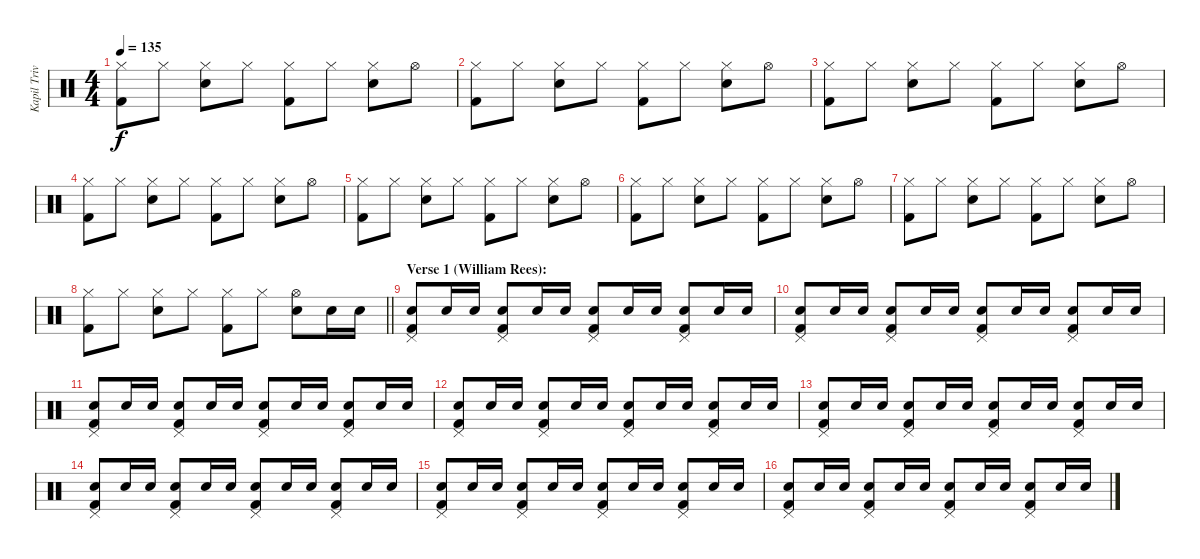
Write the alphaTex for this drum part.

\track ("Kapil Trivedi (Percussion)" "Kapil Triv") {instrument percussion}
\staff {score}
\articulation defaults
\ts (4 4)
\tempo 135
\clef neutral
\ks c
("Hi-Hat (closed)" "Kick (hit) 2").8{dy f} "Hi-Hat (closed)".8 ("Hi-Hat (closed)" "Snare (hit) 2").8 "Hi-Hat (closed)".8 ("Hi-Hat (closed)" "Kick (hit) 2").8 "Hi-Hat (closed)".8 ("Hi-Hat (closed)" "Snare (hit) 2").8 "Hi-Hat (open)".8 |
("Hi-Hat (closed)" "Kick (hit) 2").8 "Hi-Hat (closed)".8 ("Hi-Hat (closed)" "Snare (hit) 2").8 "Hi-Hat (closed)".8 ("Hi-Hat (closed)" "Kick (hit) 2").8 "Hi-Hat (closed)".8 ("Hi-Hat (closed)" "Snare (hit) 2").8 "Hi-Hat (open)".8 |
("Hi-Hat (closed)" "Kick (hit) 2").8 "Hi-Hat (closed)".8 ("Hi-Hat (closed)" "Snare (hit) 2").8 "Hi-Hat (closed)".8 ("Hi-Hat (closed)" "Kick (hit) 2").8 "Hi-Hat (closed)".8 ("Hi-Hat (closed)" "Snare (hit) 2").8 "Hi-Hat (open)".8 |
("Hi-Hat (closed)" "Kick (hit) 2").8 "Hi-Hat (closed)".8 ("Hi-Hat (closed)" "Snare (hit) 2").8 "Hi-Hat (closed)".8 ("Hi-Hat (closed)" "Kick (hit) 2").8 "Hi-Hat (closed)".8 ("Hi-Hat (closed)" "Snare (hit) 2").8 "Hi-Hat (open)".8 |
("Hi-Hat (closed)" "Kick (hit) 2").8 "Hi-Hat (closed)".8 ("Hi-Hat (closed)" "Snare (hit) 2").8 "Hi-Hat (closed)".8 ("Hi-Hat (closed)" "Kick (hit) 2").8 "Hi-Hat (closed)".8 ("Hi-Hat (closed)" "Snare (hit) 2").8 "Hi-Hat (open)".8 |
("Hi-Hat (closed)" "Kick (hit) 2").8 "Hi-Hat (closed)".8 ("Hi-Hat (closed)" "Snare (hit) 2").8 "Hi-Hat (closed)".8 ("Hi-Hat (closed)" "Kick (hit) 2").8 "Hi-Hat (closed)".8 ("Hi-Hat (closed)" "Snare (hit) 2").8 "Hi-Hat (open)".8 |
("Hi-Hat (closed)" "Kick (hit) 2").8 "Hi-Hat (closed)".8 ("Hi-Hat (closed)" "Snare (hit) 2").8 "Hi-Hat (closed)".8 ("Hi-Hat (closed)" "Kick (hit) 2").8 "Hi-Hat (closed)".8 ("Hi-Hat (closed)" "Snare (hit) 2").8 "Hi-Hat (open)".8 |
\barLineRight lightlight
("Hi-Hat (closed)" "Kick (hit) 2").8 "Hi-Hat (closed)".8 ("Hi-Hat (closed)" "Snare (hit) 2").8 "Hi-Hat (closed)".8 ("Hi-Hat (closed)" "Kick (hit) 2").8 "Hi-Hat (closed)".8 ("Hi-Hat (open)" "Snare (hit) 2").8 "Snare (hit) 2".16{volume 10} "Snare (hit) 2".16 |
\section ("" "Verse 1 (William Rees):")
("Pedal Hi-Hat (hit)" "Snare (hit) 2" "Kick (hit) 2").8 "Snare (hit) 2".16 "Snare (hit) 2".16 ("Pedal Hi-Hat (hit)" "Snare (hit) 2" "Kick (hit) 2").8 "Snare (hit) 2".16 "Snare (hit) 2".16 ("Pedal Hi-Hat (hit)" "Snare (hit) 2" "Kick (hit) 2").8 "Snare (hit) 2".16 "Snare (hit) 2".16 ("Pedal Hi-Hat (hit)" "Snare (hit) 2" "Kick (hit) 2").8 "Snare (hit) 2".16 "Snare (hit) 2".16 |
("Pedal Hi-Hat (hit)" "Snare (hit) 2" "Kick (hit) 2").8 "Snare (hit) 2".16 "Snare (hit) 2".16 ("Pedal Hi-Hat (hit)" "Snare (hit) 2" "Kick (hit) 2").8 "Snare (hit) 2".16 "Snare (hit) 2".16 ("Pedal Hi-Hat (hit)" "Snare (hit) 2" "Kick (hit) 2").8 "Snare (hit) 2".16 "Snare (hit) 2".16 ("Pedal Hi-Hat (hit)" "Snare (hit) 2" "Kick (hit) 2").8 "Snare (hit) 2".16 "Snare (hit) 2".16 |
("Pedal Hi-Hat (hit)" "Snare (hit) 2" "Kick (hit) 2").8 "Snare (hit) 2".16 "Snare (hit) 2".16 ("Pedal Hi-Hat (hit)" "Snare (hit) 2" "Kick (hit) 2").8 "Snare (hit) 2".16 "Snare (hit) 2".16 ("Pedal Hi-Hat (hit)" "Snare (hit) 2" "Kick (hit) 2").8 "Snare (hit) 2".16 "Snare (hit) 2".16 ("Pedal Hi-Hat (hit)" "Snare (hit) 2" "Kick (hit) 2").8 "Snare (hit) 2".16 "Snare (hit) 2".16 |
("Pedal Hi-Hat (hit)" "Snare (hit) 2" "Kick (hit) 2").8 "Snare (hit) 2".16 "Snare (hit) 2".16 ("Pedal Hi-Hat (hit)" "Snare (hit) 2" "Kick (hit) 2").8 "Snare (hit) 2".16 "Snare (hit) 2".16 ("Pedal Hi-Hat (hit)" "Snare (hit) 2" "Kick (hit) 2").8 "Snare (hit) 2".16 "Snare (hit) 2".16 ("Pedal Hi-Hat (hit)" "Snare (hit) 2" "Kick (hit) 2").8 "Snare (hit) 2".16 "Snare (hit) 2".16 |
("Pedal Hi-Hat (hit)" "Snare (hit) 2" "Kick (hit) 2").8 "Snare (hit) 2".16 "Snare (hit) 2".16 ("Pedal Hi-Hat (hit)" "Snare (hit) 2" "Kick (hit) 2").8 "Snare (hit) 2".16 "Snare (hit) 2".16 ("Pedal Hi-Hat (hit)" "Snare (hit) 2" "Kick (hit) 2").8 "Snare (hit) 2".16 "Snare (hit) 2".16 ("Pedal Hi-Hat (hit)" "Snare (hit) 2" "Kick (hit) 2").8 "Snare (hit) 2".16 "Snare (hit) 2".16 |
("Pedal Hi-Hat (hit)" "Snare (hit) 2" "Kick (hit) 2").8 "Snare (hit) 2".16 "Snare (hit) 2".16 ("Pedal Hi-Hat (hit)" "Snare (hit) 2" "Kick (hit) 2").8 "Snare (hit) 2".16 "Snare (hit) 2".16 ("Pedal Hi-Hat (hit)" "Snare (hit) 2" "Kick (hit) 2").8 "Snare (hit) 2".16 "Snare (hit) 2".16 ("Pedal Hi-Hat (hit)" "Snare (hit) 2" "Kick (hit) 2").8 "Snare (hit) 2".16 "Snare (hit) 2".16 |
("Pedal Hi-Hat (hit)" "Snare (hit) 2" "Kick (hit) 2").8 "Snare (hit) 2".16 "Snare (hit) 2".16 ("Pedal Hi-Hat (hit)" "Snare (hit) 2" "Kick (hit) 2").8 "Snare (hit) 2".16 "Snare (hit) 2".16 ("Pedal Hi-Hat (hit)" "Snare (hit) 2" "Kick (hit) 2").8 "Snare (hit) 2".16 "Snare (hit) 2".16 ("Pedal Hi-Hat (hit)" "Snare (hit) 2" "Kick (hit) 2").8 "Snare (hit) 2".16 "Snare (hit) 2".16 |
("Pedal Hi-Hat (hit)" "Snare (hit) 2" "Kick (hit) 2").8 "Snare (hit) 2".16 "Snare (hit) 2".16 ("Pedal Hi-Hat (hit)" "Snare (hit) 2" "Kick (hit) 2").8 "Snare (hit) 2".16 "Snare (hit) 2".16 ("Pedal Hi-Hat (hit)" "Snare (hit) 2" "Kick (hit) 2").8 "Snare (hit) 2".16 "Snare (hit) 2".16 ("Pedal Hi-Hat (hit)" "Snare (hit) 2" "Kick (hit) 2").8 "Snare (hit) 2".16 "Snare (hit) 2".16
